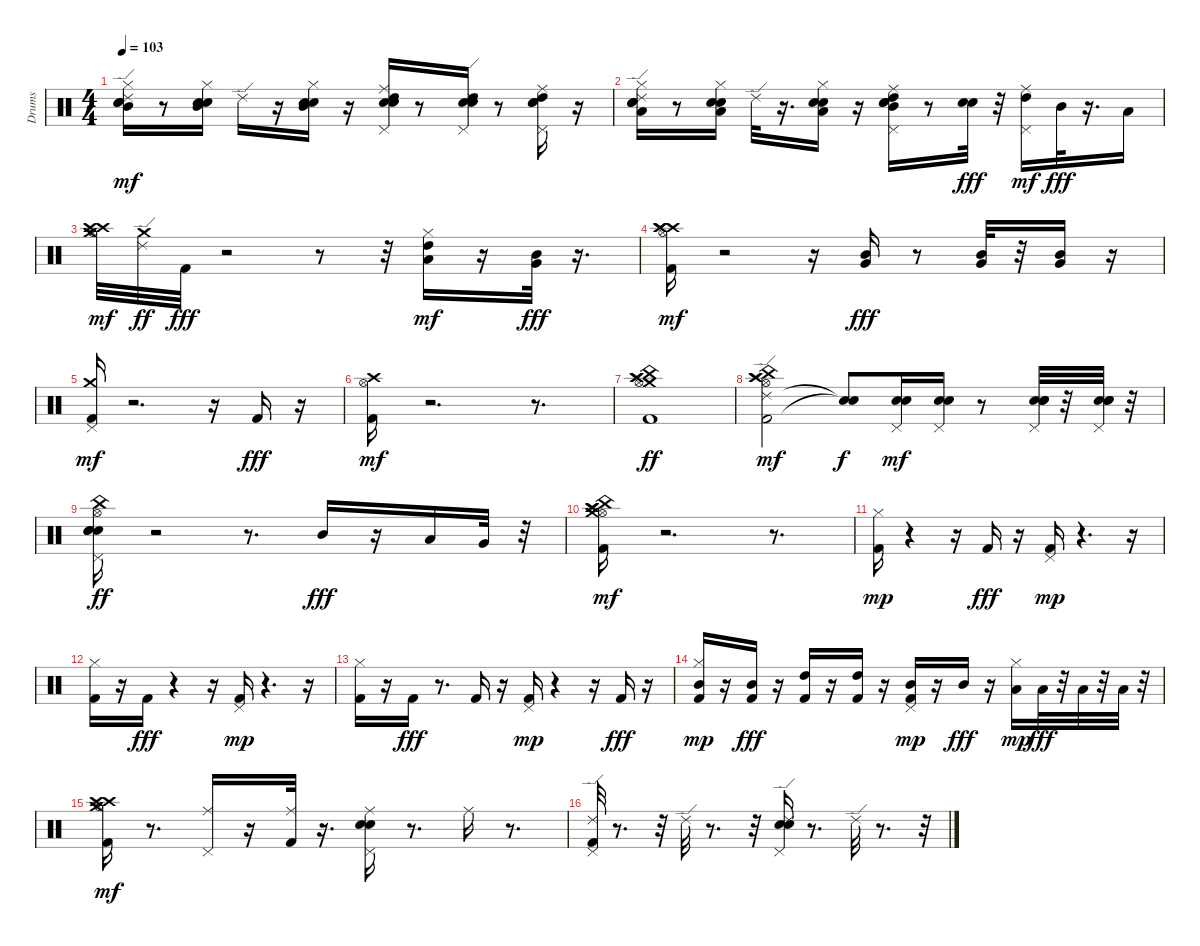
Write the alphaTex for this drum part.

\track ("Drums" "Drums") {instrument percussion}
\staff {score}
\articulation defaults
\ts (4 4)
\tempo 103
\clef neutral
\ks c
("Electric Snare (hit)" "Snare (hit) 2" "Mid Tom (hit)" "Hi-Hat (closed)" "Ride (edge) 2").16{dy mf} r.8 ("Electric Snare (hit)" "Mid Tom (hit)" "Snare (hit) 2" "Hi-Hat (closed)").16 "Ride (edge) 2".16 r.16 ("Electric Snare (hit)" "Snare (hit) 2" "Mid Tom (hit)" "Hi-Hat (closed)").16 r.16 ("Electric Snare (hit)" "High Tom (hit)" "Snare (hit) 2" "Pedal Hi-Hat (hit)" "Ride (middle)").16 r.8 ("Electric Snare (hit)" "High Tom (hit)" "Snare (hit) 2" "Pedal Hi-Hat (hit)" "Ride (edge) 2").16 r.8 ("Electric Snare (hit)" "Snare (hit) 2" "High Tom (hit)" "Pedal Hi-Hat (hit)" "Ride (middle)").16 r.16 |
("Electric Snare (hit)" "Low Tom (hit)" "Snare (hit) 2" "Hi-Hat (closed)" "Ride (edge) 2").16 r.8 ("Electric Snare (hit)" "Snare (hit) 2" "Low Tom (hit)" "Hi-Hat (closed)").16 "Ride (edge) 2".32 r.16{d} ("Electric Snare (hit)" "Snare (hit) 2" "Low Tom (hit)" "Hi-Hat (closed)").16 r.16 ("Electric Snare (hit)" "Snare (hit) 2" "Mid Tom (hit)" "High Tom (hit)" "Pedal Hi-Hat (hit)" "Ride (middle)").16 r.8 ("Electric Snare (hit)" "Snare (hit) 2").32{dy fff} r.32 ("High Tom (hit)" "Pedal Hi-Hat (hit)" "Ride (middle)").16{dy mf} "Mid Tom (hit)".32{dy fff} r.16{d} "Low Tom (hit)".16 |
("Crash high (hit)" "Hi-Hat (open)" "Crash medium (hit)" "Crash high (hit)").32{dy mf} ("Crash medium (hit)" "Ride (edge) 2").32{dy ff} "Kick (hit) 2".32{dy fff} r.2 r.8 r.32 ("Low Tom (hit)" "High Tom (hit)" "Hi-Hat (closed)").16{dy mf} r.16 ("Mid Tom (hit)" "Very Low Tom (hit)").32{dy fff} r.16{d} |
("Crash high (hit)" "Kick (hit) 2" "Hi-Hat (open)" "Crash high (hit)" "Crash high (hit)").16{dy mf} r.2 r.16 ("Very Low Tom (hit)" "Mid Tom (hit)").16{dy fff} r.8 ("Mid Tom (hit)" "Very Low Tom (hit)").32 r.32 ("Mid Tom (hit)" "Very Low Tom (hit)").16 r.16 |
("Kick (hit) 2" "Pedal Hi-Hat (hit)" "Crash medium (hit)").16{dy mf} r.2{d} r.16 "Kick (hit) 2".16{dy fff} r.16 |
("Kick (hit) 2" "Hi-Hat (open)" "Crash high (hit)").16{dy mf} r.2{d} r.8{d} |
("Kick (hit) 2" "Crash medium (hit)" "Crash high (hit)" "Hi-Hat (open)" "China (hit)" "Crash high (hit)").1{dy ff} |
("Kick (hit) 2" "Ride (edge) 2" "Crash high (hit)" "Hi-Hat (open)" "China (hit)" "Crash high (hit)").2{dy mf} ("Snare (hit)"{t} "Snare (hit)"{t}).8{dy f} ("Electric Snare (hit)" "Snare (hit) 2" "Pedal Hi-Hat (hit)").16{dy mf} ("Electric Snare (hit)" "Snare (hit) 2" "Pedal Hi-Hat (hit)").16 r.8 ("Electric Snare (hit)" "Snare (hit) 2" "Electric Snare (hit)" "Pedal Hi-Hat (hit)").32 r.32 ("Electric Snare (hit)" "Snare (hit) 2" "Electric Snare (hit)" "Pedal Hi-Hat (hit)").32 r.32 |
("Electric Snare (hit)" "Snare (hit) 2" "Electric Snare (hit)" "Pedal Hi-Hat (hit)" "Hi-Hat (open)" "China (hit)").16{dy ff} r.2 r.8{d} "Mid Tom (hit)".16{dy fff} r.16 "Low Tom (hit)".16 "Very Low Tom (hit)".32 r.32 |
("Crash high (hit)" "Kick (hit) 2" "Hi-Hat (open)" "China (hit)" "Crash high (hit)" "Crash medium (hit)").16{dy mf} r.2{d} r.8{d} |
("Kick (hit) 2" "Hi-Hat (closed)").16{dy mp} r.4 r.16 "Kick (hit) 2".16{dy fff} r.16 ("Kick (hit) 2" "Pedal Hi-Hat (hit)").16{dy mp} r.4{d} r.16 |
("Kick (hit) 2" "Hi-Hat (closed)").16 r.16 "Kick (hit) 2".16{dy fff} r.4 r.16 ("Kick (hit) 2" "Pedal Hi-Hat (hit)").16{dy mp} r.4{d} r.16 |
("Kick (hit) 2" "Hi-Hat (closed)").16 r.16 "Kick (hit) 2".16{dy fff} r.8{d} "Kick (hit) 2".16 r.16 ("Kick (hit) 2" "Pedal Hi-Hat (hit)").16{dy mp} r.4 r.16 "Kick (hit) 2".16{dy fff} r.16 |
("Kick (hit) 2" "Mid Tom (hit)" "Hi-Hat (closed)").16{dy mp} r.16 ("Kick (hit) 2" "Mid Tom (hit)").16{dy fff} r.16 ("High Tom (hit)" "Kick (hit) 2").16 r.16 ("High Tom (hit)" "Kick (hit) 2").16 r.16 ("Mid Tom (hit)" "Kick (hit) 2" "Pedal Hi-Hat (hit)").16{dy mp} r.16 "Mid Tom (hit)".16{dy fff} r.16 ("Low Tom (hit)" "Hi-Hat (closed)").16{dy mp} "Low Tom (hit)".32{dy fff} r.32 "Low Tom (hit)".32 r.32 "Low Tom (hit)".32 r.32 |
("Kick (hit) 2" "Crash high (hit)" "Hi-Hat (open)" "Crash medium (hit)" "Crash high (hit)").16{dy mf} r.8{d} ("Pedal Hi-Hat (hit)" "Ride (middle)").16 r.16 ("Kick (hit) 2" "Ride (middle)").32 r.16{d} ("Electric Snare (hit)" "Snare (hit) 2" "Pedal Hi-Hat (hit)" "Ride (middle)").16 r.8{d} "Ride (middle)".16 r.8{d} |
("Kick (hit) 2" "Pedal Hi-Hat (hit)" "Ride (edge) 2").32 r.8{d} r.32 "Ride (edge) 2".32 r.8{d} r.32 ("Electric Snare (hit)" "Snare (hit) 2" "Pedal Hi-Hat (hit)" "Ride (edge) 2").16 r.8{d} "Ride (edge) 2".32 r.8{d} r.32
